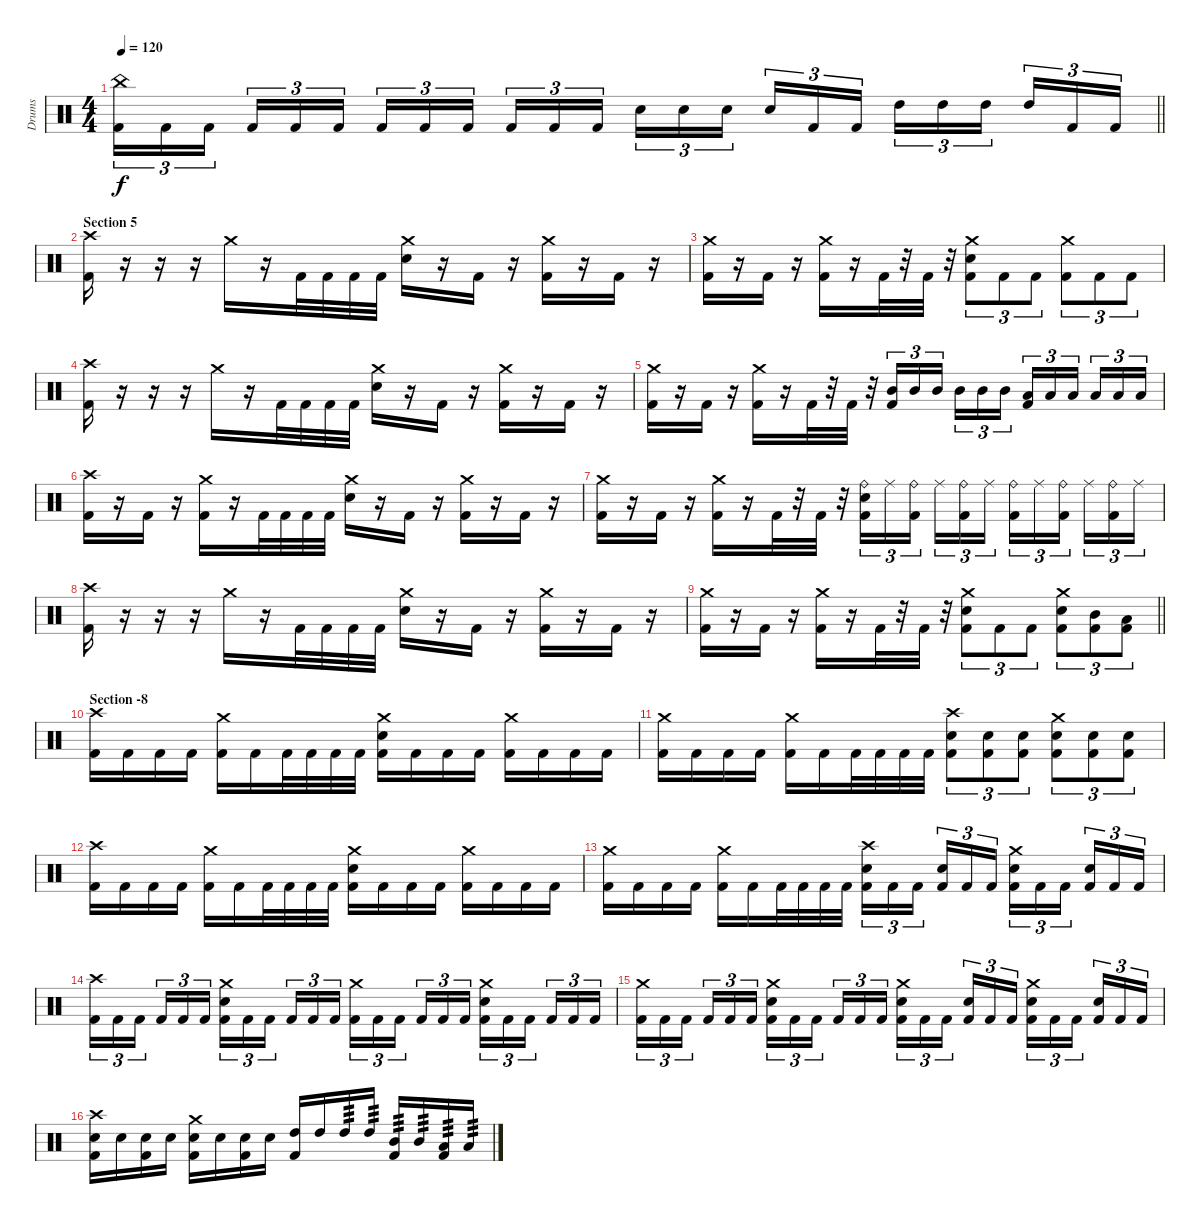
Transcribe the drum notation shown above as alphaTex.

\track ("Drums" "Drums") {instrument percussion}
\staff {score}
\articulation defaults
\ts (4 4)
\tempo 120
\clef neutral
\barLineRight lightlight
\ks c
("China (hit)" "Kick (hit) 2").16{tu (3 2) dy f} "Kick (hit) 2".16{tu (3 2)} "Kick (hit) 2".16{tu (3 2) beam splitsecondary} "Kick (hit) 2".16{tu (3 2)} "Kick (hit) 2".16{tu (3 2)} "Kick (hit) 2".16{tu (3 2)} "Kick (hit) 2".16{tu (3 2)} "Kick (hit) 2".16{tu (3 2)} "Kick (hit) 2".16{tu (3 2) beam splitsecondary} "Kick (hit) 2".16{tu (3 2)} "Kick (hit) 2".16{tu (3 2)} "Kick (hit) 2".16{tu (3 2)} "Snare (hit) 2".16{tu (3 2)} "Snare (hit) 2".16{tu (3 2)} "Snare (hit) 2".16{tu (3 2) beam splitsecondary} "Snare (hit) 2".16{tu (3 2)} "Kick (hit) 2".16{tu (3 2)} "Kick (hit) 2".16{tu (3 2)} "High Tom (hit)".16{tu (3 2)} "High Tom (hit)".16{tu (3 2)} "High Tom (hit)".16{tu (3 2) beam splitsecondary} "High Tom (hit)".16{tu (3 2)} "Kick (hit) 2".16{tu (3 2)} "Kick (hit) 2".16{tu (3 2)} |
\section ("" "Section 5")
("Crash high (hit)" "Kick (hit) 2").16 r.16 r.16 r.16 "Crash medium (hit)".16 r.16 "Kick (hit) 2".32 "Kick (hit) 2".32 "Kick (hit) 2".32 "Kick (hit) 2".32 ("Crash medium (hit)" "Snare (hit) 2").16 r.16 "Kick (hit) 2".16 r.16 ("Crash medium (hit)" "Kick (hit) 2").16 r.16 "Kick (hit) 2".16 r.16 |
("Crash medium (hit)" "Kick (hit) 2").16 r.16 "Kick (hit) 2".16 r.16 ("Crash medium (hit)" "Kick (hit) 2").16 r.16 "Kick (hit) 2".32 r.32 "Kick (hit) 2".32 r.32 ("Crash medium (hit)" "Snare (hit) 2" "Kick (hit) 2").8{tu (3 2)} "Kick (hit) 2".8{tu (3 2)} "Kick (hit) 2".8{tu (3 2)} ("Crash medium (hit)" "Kick (hit) 2").8{tu (3 2)} "Kick (hit) 2".8{tu (3 2)} "Kick (hit) 2".8{tu (3 2)} |
("Crash high (hit)" "Kick (hit) 2").16 r.16 r.16 r.16 "Crash medium (hit)".16 r.16 "Kick (hit) 2".32 "Kick (hit) 2".32 "Kick (hit) 2".32 "Kick (hit) 2".32 ("Crash medium (hit)" "Snare (hit) 2").16 r.16 "Kick (hit) 2".16 r.16 ("Crash medium (hit)" "Kick (hit) 2").16 r.16 "Kick (hit) 2".16 r.16 |
("Crash medium (hit)" "Kick (hit) 2").16 r.16 "Kick (hit) 2".16 r.16 ("Crash medium (hit)" "Kick (hit) 2").16 r.16 "Kick (hit) 2".32 r.32 "Kick (hit) 2".32 r.32 ("Mid Tom (hit)" "Kick (hit) 2").16{tu (3 2)} "Mid Tom (hit)".16{tu (3 2)} "Mid Tom (hit)".16{tu (3 2) beam splitsecondary} "Mid Tom (hit)".16{tu (3 2)} "Mid Tom (hit)".16{tu (3 2)} "Mid Tom (hit)".16{tu (3 2)} ("Low Tom (hit)" "Kick (hit) 2").16{tu (3 2)} "Low Tom (hit)".16{tu (3 2)} "Low Tom (hit)".16{tu (3 2) beam splitsecondary} "Low Tom (hit)".16{tu (3 2)} "Low Tom (hit)".16{tu (3 2)} "Low Tom (hit)".16{tu (3 2)} |
("Crash high (hit)" "Kick (hit) 2").16 r.16 "Kick (hit) 2".16 r.16 ("Crash medium (hit)" "Kick (hit) 2").16 r.16 "Kick (hit) 2".32 "Kick (hit) 2".32 "Kick (hit) 2".32 "Kick (hit) 2".32 ("Crash medium (hit)" "Snare (hit) 2").16 r.16 "Kick (hit) 2".16 r.16 ("Crash medium (hit)" "Kick (hit) 2").16 r.16 "Kick (hit) 2".16 r.16 |
("Crash medium (hit)" "Kick (hit) 2").16 r.16 "Kick (hit) 2".16 r.16 ("Crash medium (hit)" "Kick (hit) 2").16 r.16 "Kick (hit) 2".32 r.32 "Kick (hit) 2".32 r.32 ("Ride (bell)" "Snare (hit) 2" "Kick (hit) 2").16{tu (3 2)} "Ride (middle)".16{tu (3 2)} ("Ride (bell)" "Kick (hit) 2").16{tu (3 2) beam splitsecondary} "Ride (middle)".16{tu (3 2)} ("Ride (bell)" "Kick (hit) 2").16{tu (3 2)} "Ride (middle)".16{tu (3 2)} ("Ride (bell)" "Kick (hit) 2").16{tu (3 2)} "Ride (middle)".16{tu (3 2)} ("Ride (bell)" "Kick (hit) 2").16{tu (3 2) beam splitsecondary} "Ride (middle)".16{tu (3 2)} ("Ride (bell)" "Kick (hit) 2").16{tu (3 2)} "Ride (middle)".16{tu (3 2)} |
("Crash high (hit)" "Kick (hit) 2").16 r.16 r.16 r.16 "Crash medium (hit)".16 r.16 "Kick (hit) 2".32 "Kick (hit) 2".32 "Kick (hit) 2".32 "Kick (hit) 2".32 ("Crash medium (hit)" "Snare (hit) 2").16 r.16 "Kick (hit) 2".16 r.16 ("Crash medium (hit)" "Kick (hit) 2").16 r.16 "Kick (hit) 2".16 r.16 |
\barLineRight lightlight
("Crash medium (hit)" "Kick (hit) 2").16 r.16 "Kick (hit) 2".16 r.16 ("Crash medium (hit)" "Kick (hit) 2").16 r.16 "Kick (hit) 2".32 r.32 "Kick (hit) 2".32 r.32 ("Crash medium (hit)" "Snare (hit) 2" "Kick (hit) 2").8{tu (3 2)} "Kick (hit) 2".8{tu (3 2)} "Kick (hit) 2".8{tu (3 2)} ("Crash medium (hit)" "Snare (hit) 2" "Kick (hit) 2").8{tu (3 2)} ("Mid Tom (hit)" "Kick (hit) 2").8{tu (3 2)} ("Low Tom (hit)" "Kick (hit) 2").8{tu (3 2)} |
\section ("" "Section -8")
("Crash high (hit)" "Kick (hit) 2").16 "Kick (hit) 2".16 "Kick (hit) 2".16 "Kick (hit) 2".16 ("Crash medium (hit)" "Kick (hit) 2").16 "Kick (hit) 2".16 "Kick (hit) 2".32 "Kick (hit) 2".32 "Kick (hit) 2".32 "Kick (hit) 2".32 ("Crash medium (hit)" "Snare (hit) 2" "Kick (hit) 2").16 "Kick (hit) 2".16 "Kick (hit) 2".16 "Kick (hit) 2".16 ("Crash medium (hit)" "Kick (hit) 2").16 "Kick (hit) 2".16 "Kick (hit) 2".16 "Kick (hit) 2".16 |
("Crash medium (hit)" "Kick (hit) 2").16 "Kick (hit) 2".16 "Kick (hit) 2".16 "Kick (hit) 2".16 ("Crash medium (hit)" "Kick (hit) 2").16 "Kick (hit) 2".16 "Kick (hit) 2".32 "Kick (hit) 2".32 "Kick (hit) 2".32 "Kick (hit) 2".32 ("Crash high (hit)" "Snare (hit) 2" "Kick (hit) 2").8{tu (3 2)} ("Snare (hit) 2" "Kick (hit) 2").8{tu (3 2)} ("Snare (hit) 2" "Kick (hit) 2").8{tu (3 2)} ("Crash medium (hit)" "Snare (hit) 2" "Kick (hit) 2").8{tu (3 2)} ("Snare (hit) 2" "Kick (hit) 2").8{tu (3 2)} ("Snare (hit) 2" "Kick (hit) 2").8{tu (3 2)} |
("Crash high (hit)" "Kick (hit) 2").16 "Kick (hit) 2".16 "Kick (hit) 2".16 "Kick (hit) 2".16 ("Crash medium (hit)" "Kick (hit) 2").16 "Kick (hit) 2".16 "Kick (hit) 2".32 "Kick (hit) 2".32 "Kick (hit) 2".32 "Kick (hit) 2".32 ("Crash medium (hit)" "Snare (hit) 2" "Kick (hit) 2").16 "Kick (hit) 2".16 "Kick (hit) 2".16 "Kick (hit) 2".16 ("Crash medium (hit)" "Kick (hit) 2").16 "Kick (hit) 2".16 "Kick (hit) 2".16 "Kick (hit) 2".16 |
("Crash medium (hit)" "Kick (hit) 2").16 "Kick (hit) 2".16 "Kick (hit) 2".16 "Kick (hit) 2".16 ("Crash medium (hit)" "Kick (hit) 2").16 "Kick (hit) 2".16 "Kick (hit) 2".32 "Kick (hit) 2".32 "Kick (hit) 2".32 "Kick (hit) 2".32 ("Crash high (hit)" "Snare (hit) 2" "Kick (hit) 2").16{tu (3 2)} "Kick (hit) 2".16{tu (3 2)} "Kick (hit) 2".16{tu (3 2) beam splitsecondary} ("Snare (hit) 2" "Kick (hit) 2").16{tu (3 2)} "Kick (hit) 2".16{tu (3 2)} "Kick (hit) 2".16{tu (3 2)} ("Crash medium (hit)" "Snare (hit) 2" "Kick (hit) 2").16{tu (3 2)} "Kick (hit) 2".16{tu (3 2)} "Kick (hit) 2".16{tu (3 2) beam splitsecondary} ("Snare (hit) 2" "Kick (hit) 2").16{tu (3 2)} "Kick (hit) 2".16{tu (3 2)} "Kick (hit) 2".16{tu (3 2)} |
("Crash high (hit)" "Kick (hit) 2").16{tu (3 2)} "Kick (hit) 2".16{tu (3 2)} "Kick (hit) 2".16{tu (3 2) beam splitsecondary} "Kick (hit) 2".16{tu (3 2)} "Kick (hit) 2".16{tu (3 2)} "Kick (hit) 2".16{tu (3 2)} ("Crash medium (hit)" "Snare (hit) 2" "Kick (hit) 2").16{tu (3 2)} "Kick (hit) 2".16{tu (3 2)} "Kick (hit) 2".16{tu (3 2) beam splitsecondary} "Kick (hit) 2".16{tu (3 2)} "Kick (hit) 2".16{tu (3 2)} "Kick (hit) 2".16{tu (3 2)} ("Crash medium (hit)" "Kick (hit) 2").16{tu (3 2)} "Kick (hit) 2".16{tu (3 2)} "Kick (hit) 2".16{tu (3 2) beam splitsecondary} "Kick (hit) 2".16{tu (3 2)} "Kick (hit) 2".16{tu (3 2)} "Kick (hit) 2".16{tu (3 2)} ("Crash medium (hit)" "Snare (hit) 2" "Kick (hit) 2").16{tu (3 2)} "Kick (hit) 2".16{tu (3 2)} "Kick (hit) 2".16{tu (3 2) beam splitsecondary} "Kick (hit) 2".16{tu (3 2)} "Kick (hit) 2".16{tu (3 2)} "Kick (hit) 2".16{tu (3 2)} |
("Crash medium (hit)" "Kick (hit) 2").16{tu (3 2)} "Kick (hit) 2".16{tu (3 2)} "Kick (hit) 2".16{tu (3 2) beam splitsecondary} "Kick (hit) 2".16{tu (3 2)} "Kick (hit) 2".16{tu (3 2)} "Kick (hit) 2".16{tu (3 2)} ("Crash medium (hit)" "Snare (hit) 2" "Kick (hit) 2").16{tu (3 2)} "Kick (hit) 2".16{tu (3 2)} "Kick (hit) 2".16{tu (3 2) beam splitsecondary} "Kick (hit) 2".16{tu (3 2)} "Kick (hit) 2".16{tu (3 2)} "Kick (hit) 2".16{tu (3 2)} ("Crash medium (hit)" "Snare (hit) 2" "Kick (hit) 2").16{tu (3 2)} "Kick (hit) 2".16{tu (3 2)} "Kick (hit) 2".16{tu (3 2) beam splitsecondary} ("Snare (hit) 2" "Kick (hit) 2").16{tu (3 2)} "Kick (hit) 2".16{tu (3 2)} "Kick (hit) 2".16{tu (3 2)} ("Crash medium (hit)" "Snare (hit) 2" "Kick (hit) 2").16{tu (3 2)} "Kick (hit) 2".16{tu (3 2)} "Kick (hit) 2".16{tu (3 2) beam splitsecondary} ("Snare (hit) 2" "Kick (hit) 2").16{tu (3 2)} "Kick (hit) 2".16{tu (3 2)} "Kick (hit) 2".16{tu (3 2)} |
("Crash high (hit)" "Snare (hit) 2" "Kick (hit) 2").16 "Snare (hit) 2".16 ("Snare (hit) 2" "Kick (hit) 2").16 "Snare (hit) 2".16 ("Crash medium (hit)" "Snare (hit) 2" "Kick (hit) 2").16 "Snare (hit) 2".16 ("Snare (hit) 2" "Kick (hit) 2").16 "Snare (hit) 2".16 ("High Tom (hit)" "Kick (hit) 2").16 "High Tom (hit)".16 "High Tom (hit)".16{tp 3} "High Tom (hit)".16{tp 3} ("Mid Tom (hit)" "Kick (hit) 2").16{tp 3} "Mid Tom (hit)".16{tp 3} ("Low Tom (hit)" "Kick (hit) 2").16{tp 3} "Low Tom (hit)".16{tp 3}
